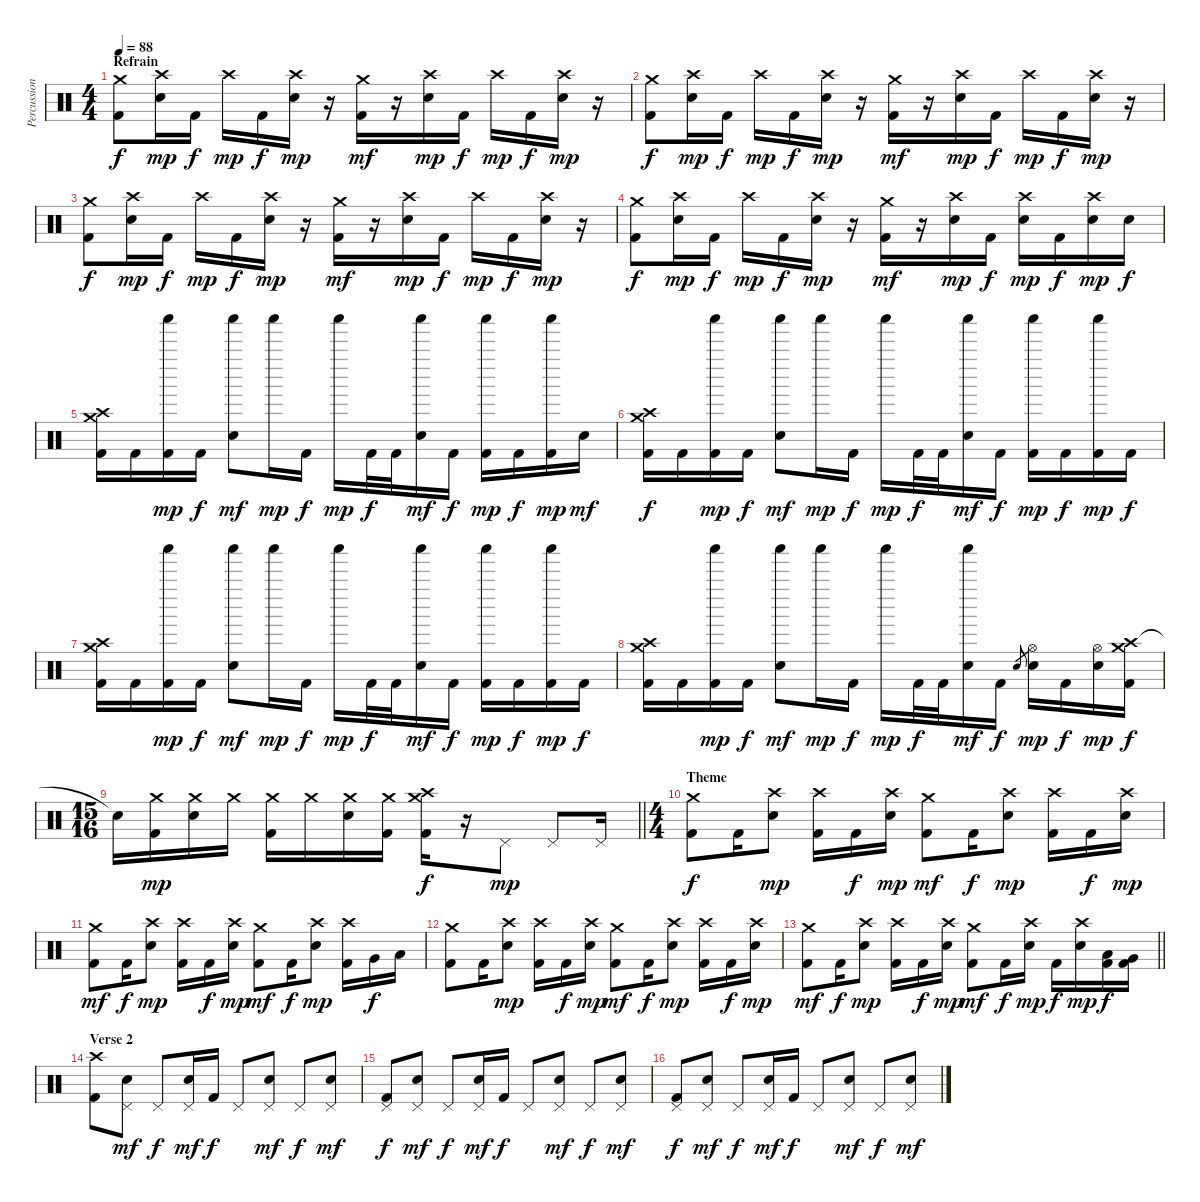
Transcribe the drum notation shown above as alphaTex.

\track ("Percussion" "Percussion") {instrument percussion}
\staff {score}
\articulation defaults
\ts (4 4)
\section ("" "Refrain")
\tempo 88
\clef neutral
\ks c
("Crash medium (hit)" "Kick (hit) 2").8{dy f} ("Crash high (hit)" "Electric Snare (hit)").16{dy mp} "Kick (hit) 2".16{dy f} "Crash high (hit)".16{dy mp} "Kick (hit) 2".16{dy f} ("Crash high (hit)" "Electric Snare (hit)").16{dy mp} r.16 ("Crash medium (hit)" "Kick (hit) 2").16{dy mf} r.16 ("Crash high (hit)" "Electric Snare (hit)").16{dy mp} "Kick (hit) 2".16{dy f} "Crash high (hit)".16{dy mp} "Kick (hit) 2".16{dy f} ("Crash high (hit)" "Electric Snare (hit)").16{dy mp} r.16 |
("Crash medium (hit)" "Kick (hit) 2").8{dy f} ("Crash high (hit)" "Electric Snare (hit)").16{dy mp} "Kick (hit) 2".16{dy f} "Crash high (hit)".16{dy mp} "Kick (hit) 2".16{dy f} ("Crash high (hit)" "Electric Snare (hit)").16{dy mp} r.16 ("Crash medium (hit)" "Kick (hit) 2").16{dy mf} r.16 ("Crash high (hit)" "Electric Snare (hit)").16{dy mp} "Kick (hit) 2".16{dy f} "Crash high (hit)".16{dy mp} "Kick (hit) 2".16{dy f} ("Crash high (hit)" "Electric Snare (hit)").16{dy mp} r.16 |
("Crash medium (hit)" "Kick (hit) 2").8{dy f} ("Crash high (hit)" "Electric Snare (hit)").16{dy mp} "Kick (hit) 2".16{dy f} "Crash high (hit)".16{dy mp} "Kick (hit) 2".16{dy f} ("Crash high (hit)" "Electric Snare (hit)").16{dy mp} r.16 ("Crash medium (hit)" "Kick (hit) 2").16{dy mf} r.16 ("Crash high (hit)" "Electric Snare (hit)").16{dy mp} "Kick (hit) 2".16{dy f} "Crash high (hit)".16{dy mp} "Kick (hit) 2".16{dy f} ("Crash high (hit)" "Electric Snare (hit)").16{dy mp} r.16 |
("Crash medium (hit)" "Kick (hit) 2").8{dy f} ("Crash high (hit)" "Electric Snare (hit)").16{dy mp} "Kick (hit) 2".16{dy f} "Crash high (hit)".16{dy mp} "Kick (hit) 2".16{dy f} ("Crash high (hit)" "Electric Snare (hit)").16{dy mp} r.16 ("Crash medium (hit)" "Kick (hit) 2").16{dy mf} r.16 ("Crash high (hit)" "Electric Snare (hit)").16{dy mp} "Kick (hit) 2".16{dy f} ("Crash high (hit)" "Electric Snare (hit)").16{dy mp} "Kick (hit) 2".16{dy f} ("Crash high (hit)" "Electric Snare (hit)").16{dy mp} "Electric Snare (hit)".16{dy f} |
("Crash high (hit)" "Crash medium (hit)" "Kick (hit) 2").16 "Kick (hit) 2".16 ("Shaker (hit)" "Kick (hit) 2").16{dy mp} "Kick (hit) 2".16{dy f} ("Shaker (hit)" "Electric Snare (hit)").8{dy mf} "Shaker (hit)".16{dy mp} "Kick (hit) 2".16{dy f} "Shaker (hit)".16{dy mp} "Kick (hit) 2".32{dy f} "Kick (hit) 2".32 ("Shaker (hit)" "Electric Snare (hit)").16{dy mf} "Kick (hit) 2".16{dy f} ("Shaker (hit)" "Kick (hit) 2").16{dy mp} "Kick (hit) 2".16{dy f} ("Shaker (hit)" "Kick (hit) 2").16{dy mp} "Electric Snare (hit)".16{dy mf} |
("Crash high (hit)" "Crash medium (hit)" "Kick (hit) 2").16{dy f} "Kick (hit) 2".16 ("Shaker (hit)" "Kick (hit) 2").16{dy mp} "Kick (hit) 2".16{dy f} ("Shaker (hit)" "Electric Snare (hit)").8{dy mf} "Shaker (hit)".16{dy mp} "Kick (hit) 2".16{dy f} "Shaker (hit)".16{dy mp} "Kick (hit) 2".32{dy f} "Kick (hit) 2".32 ("Shaker (hit)" "Electric Snare (hit)").16{dy mf} "Kick (hit) 2".16{dy f} ("Shaker (hit)" "Kick (hit) 2").16{dy mp} "Kick (hit) 2".16{dy f} ("Shaker (hit)" "Kick (hit) 2").16{dy mp} "Kick (hit) 2".16{dy f} |
("Crash high (hit)" "Crash medium (hit)" "Kick (hit) 2").16 "Kick (hit) 2".16 ("Shaker (hit)" "Kick (hit) 2").16{dy mp} "Kick (hit) 2".16{dy f} ("Shaker (hit)" "Electric Snare (hit)").8{dy mf} "Shaker (hit)".16{dy mp} "Kick (hit) 2".16{dy f} "Shaker (hit)".16{dy mp} "Kick (hit) 2".32{dy f} "Kick (hit) 2".32 ("Shaker (hit)" "Electric Snare (hit)").16{dy mf} "Kick (hit) 2".16{dy f} ("Shaker (hit)" "Kick (hit) 2").16{dy mp} "Kick (hit) 2".16{dy f} ("Shaker (hit)" "Kick (hit) 2").16{dy mp} "Kick (hit) 2".16{dy f} |
("Crash high (hit)" "Crash medium (hit)" "Kick (hit) 2").16 "Kick (hit) 2".16 ("Shaker (hit)" "Kick (hit) 2").16{dy mp} "Kick (hit) 2".16{dy f} ("Shaker (hit)" "Electric Snare (hit)").8{dy mf} "Shaker (hit)".16{dy mp} "Kick (hit) 2".16{dy f} "Shaker (hit)".16{dy mp} "Kick (hit) 2".32{dy f} "Kick (hit) 2".32 ("Shaker (hit)" "Electric Snare (hit)").16{dy mf} "Kick (hit) 2".16{dy f} "Electric Snare (hit)".8{gr} ("Hi-Hat (open)" "Electric Snare (hit)").16{dy mp} "Kick (hit) 2".16{dy f} ("Hi-Hat (open)" "Electric Snare (hit)").16{dy mp} ("Crash high (hit)" "Crash medium (hit)" "Kick (hit) 2").16{dy f} |
\ts (15 16)
\barLineRight lightlight "Snare (hit)"{t}.16
("Crash medium (hit)" "Kick (hit) 2").16{dy mp} ("Crash medium (hit)" "Electric Snare (hit)").16 "Crash medium (hit)".16 ("Crash medium (hit)" "Kick (hit) 2").16 "Crash medium (hit)".16 ("Crash medium (hit)" "Electric Snare (hit)").16 ("Crash medium (hit)" "Kick (hit) 2").16 ("Crash high (hit)" "Crash medium (hit)" "Kick (hit) 2").16{dy f} r.16 "Pedal Hi-Hat (hit)".8{dy mp} "Pedal Hi-Hat (hit)".8 "Pedal Hi-Hat (hit)".16 |
\ts (4 4)
\section ("" "Theme")
("Crash medium (hit)" "Kick (hit) 2").8{dy f} "Kick (hit) 2".16 ("Crash high (hit)" "Electric Snare (hit)").8{dy mp} ("Crash high (hit)" "Kick (hit) 2").16 "Kick (hit) 2".16{dy f} ("Crash high (hit)" "Electric Snare (hit)").16{dy mp} ("Crash medium (hit)" "Kick (hit) 2").8{dy mf} "Kick (hit) 2".16{dy f} ("Crash high (hit)" "Electric Snare (hit)").8{dy mp} ("Crash high (hit)" "Kick (hit) 2").16 "Kick (hit) 2".16{dy f} ("Crash high (hit)" "Electric Snare (hit)").16{dy mp} |
("Crash medium (hit)" "Kick (hit) 2").8{dy mf} "Kick (hit) 2".16{dy f} ("Crash high (hit)" "Electric Snare (hit)").8{dy mp} ("Crash high (hit)" "Kick (hit) 2").16 "Kick (hit) 2".16{dy f} ("Crash high (hit)" "Electric Snare (hit)").16{dy mp} ("Crash medium (hit)" "Kick (hit) 2").8{dy mf} "Kick (hit) 2".16{dy f} ("Crash high (hit)" "Electric Snare (hit)").8{dy mp} ("Crash high (hit)" "Kick (hit) 2").16 "Very Low Tom (hit)".16{dy f} "Low Floor Tom (hit)".16 |
("Crash medium (hit)" "Kick (hit) 2").8 "Kick (hit) 2".16 ("Crash high (hit)" "Electric Snare (hit)").8{dy mp} ("Crash high (hit)" "Kick (hit) 2").16 "Kick (hit) 2".16{dy f} ("Crash high (hit)" "Electric Snare (hit)").16{dy mp} ("Crash medium (hit)" "Kick (hit) 2").8{dy mf} "Kick (hit) 2".16{dy f} ("Crash high (hit)" "Electric Snare (hit)").8{dy mp} ("Crash high (hit)" "Kick (hit) 2").16 "Kick (hit) 2".16{dy f} ("Crash high (hit)" "Electric Snare (hit)").16{dy mp} |
\barLineRight lightlight
("Crash medium (hit)" "Kick (hit) 2").8{dy mf} "Kick (hit) 2".16{dy f} ("Crash high (hit)" "Electric Snare (hit)").8{dy mp} ("Crash high (hit)" "Kick (hit) 2").16 "Kick (hit) 2".16{dy f} ("Crash high (hit)" "Electric Snare (hit)").16{dy mp} ("Crash medium (hit)" "Kick (hit) 2").8{dy mf} "Kick (hit) 2".16{dy f} ("Crash high (hit)" "Electric Snare (hit)").16{dy mp} "Kick (hit) 2".16{dy f} ("Crash high (hit)" "Electric Snare (hit)").16{dy mp} ("Low Tom (hit)" "Kick (hit) 2").16{dy f} ("Very Low Tom (hit)" "Kick (hit) 2").16 |
\section ("" "Verse 2")
("Crash high (hit)" "Kick (hit) 2").8 ("Pedal Hi-Hat (hit)" "Electric Snare (hit)").8{dy mf} "Pedal Hi-Hat (hit)".8{dy f} ("Pedal Hi-Hat (hit)" "Electric Snare (hit)").16{dy mf} "Kick (hit) 2".16{dy f} "Pedal Hi-Hat (hit)".8 ("Pedal Hi-Hat (hit)" "Electric Snare (hit)").8{dy mf} "Pedal Hi-Hat (hit)".8{dy f} ("Pedal Hi-Hat (hit)" "Electric Snare (hit)").8{dy mf} |
("Pedal Hi-Hat (hit)" "Kick (hit) 2").8{dy f} ("Pedal Hi-Hat (hit)" "Electric Snare (hit)").8{dy mf} "Pedal Hi-Hat (hit)".8{dy f} ("Pedal Hi-Hat (hit)" "Electric Snare (hit)").16{dy mf} "Kick (hit) 2".16{dy f} "Pedal Hi-Hat (hit)".8 ("Pedal Hi-Hat (hit)" "Electric Snare (hit)").8{dy mf} "Pedal Hi-Hat (hit)".8{dy f} ("Pedal Hi-Hat (hit)" "Electric Snare (hit)").8{dy mf} |
("Pedal Hi-Hat (hit)" "Kick (hit) 2").8{dy f} ("Pedal Hi-Hat (hit)" "Electric Snare (hit)").8{dy mf} "Pedal Hi-Hat (hit)".8{dy f} ("Pedal Hi-Hat (hit)" "Electric Snare (hit)").16{dy mf} "Kick (hit) 2".16{dy f} "Pedal Hi-Hat (hit)".8 ("Pedal Hi-Hat (hit)" "Electric Snare (hit)").8{dy mf} "Pedal Hi-Hat (hit)".8{dy f} ("Pedal Hi-Hat (hit)" "Electric Snare (hit)").8{dy mf}
